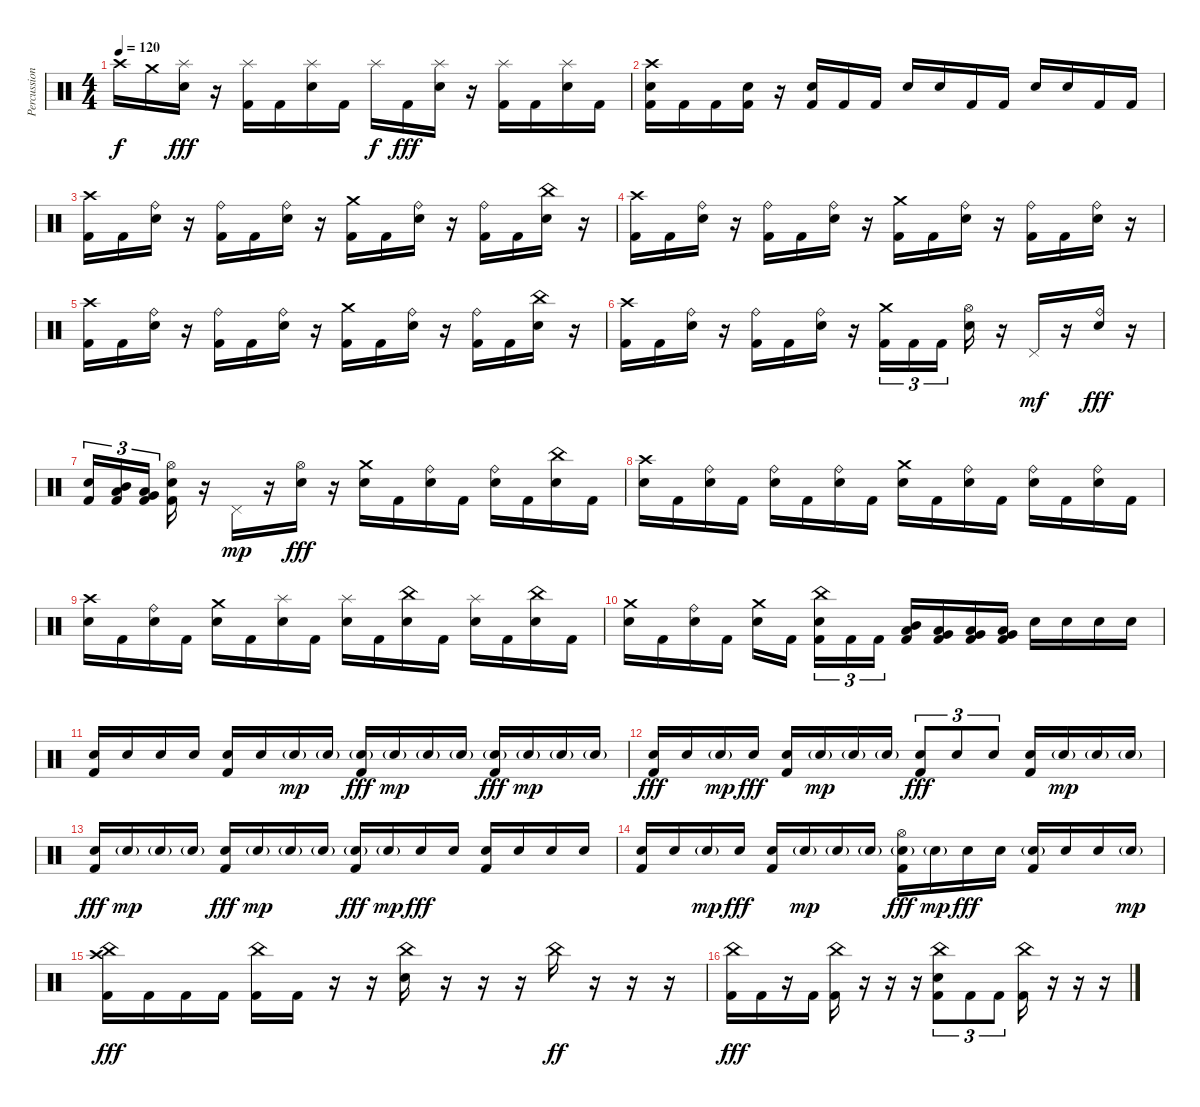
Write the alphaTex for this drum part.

\track ("Percussion" "Percussion") {instrument percussion}
\staff {score}
\articulation defaults
\ts (4 4)
\tempo 120
\clef neutral
\ks c "Crash high (hit)".16{dy f} "Crash medium (hit)".16
("Splash (hit)" "Electric Snare (hit)").16{dy fff} r.16 ("Splash (hit)" "Kick (hit) 2").16 "Kick (hit) 2".16 ("Splash (hit)" "Electric Snare (hit)").16 "Kick (hit) 2".16 "Splash (hit)".16{dy f} "Kick (hit) 2".16{dy fff} ("Splash (hit)" "Electric Snare (hit)").16 r.16 ("Splash (hit)" "Kick (hit) 2").16 "Kick (hit) 2".16 ("Splash (hit)" "Electric Snare (hit)").16 "Kick (hit) 2".16 |
("Crash high (hit)" "Electric Snare (hit)" "Kick (hit) 2").16 "Kick (hit) 2".16 "Kick (hit) 2".16 ("Electric Snare (hit)" "Kick (hit) 2").16 r.16 ("Electric Snare (hit)" "Kick (hit) 2").16 "Kick (hit) 2".16 "Kick (hit) 2".16 "Electric Snare (hit)".16 "Electric Snare (hit)".16 "Kick (hit) 2".16 "Kick (hit) 2".16 "Electric Snare (hit)".16 "Electric Snare (hit)".16 "Kick (hit) 2".16 "Kick (hit) 2".16 |
("Crash high (hit)" "Kick (hit) 2").16 "Kick (hit) 2".16 ("Ride (bell)" "Electric Snare (hit)").16 r.16 ("Ride (bell)" "Kick (hit) 2").16 "Kick (hit) 2".16 ("Ride (bell)" "Electric Snare (hit)").16 r.16 ("Crash medium (hit)" "Kick (hit) 2").16 "Kick (hit) 2".16 ("Ride (bell)" "Electric Snare (hit)").16 r.16 ("Ride (bell)" "Kick (hit) 2").16 "Kick (hit) 2".16 ("China (hit)" "Electric Snare (hit)").16 r.16 |
("Crash high (hit)" "Kick (hit) 2").16 "Kick (hit) 2".16 ("Ride (bell)" "Electric Snare (hit)").16 r.16 ("Ride (bell)" "Kick (hit) 2").16 "Kick (hit) 2".16 ("Ride (bell)" "Electric Snare (hit)").16 r.16 ("Crash medium (hit)" "Kick (hit) 2").16 "Kick (hit) 2".16 ("Ride (bell)" "Electric Snare (hit)").16 r.16 ("Ride (bell)" "Kick (hit) 2").16 "Kick (hit) 2".16 ("Ride (bell)" "Electric Snare (hit)").16 r.16 |
("Crash high (hit)" "Kick (hit) 2").16 "Kick (hit) 2".16 ("Ride (bell)" "Electric Snare (hit)").16 r.16 ("Ride (bell)" "Kick (hit) 2").16 "Kick (hit) 2".16 ("Ride (bell)" "Electric Snare (hit)").16 r.16 ("Crash medium (hit)" "Kick (hit) 2").16 "Kick (hit) 2".16 ("Ride (bell)" "Electric Snare (hit)").16 r.16 ("Ride (bell)" "Kick (hit) 2").16 "Kick (hit) 2".16 ("China (hit)" "Electric Snare (hit)").16 r.16 |
("Crash high (hit)" "Kick (hit) 2").16 "Kick (hit) 2".16 ("Ride (bell)" "Electric Snare (hit)").16 r.16 ("Ride (bell)" "Kick (hit) 2").16 "Kick (hit) 2".16 ("Ride (bell)" "Electric Snare (hit)").16 r.16 ("Crash medium (hit)" "Kick (hit) 2").16{tu (3 2)} "Kick (hit) 2".16{tu (3 2)} "Kick (hit) 2".16{tu (3 2) beam splitsecondary} ("Hi-Hat (open)" "Electric Snare (hit)").16 r.16 "Pedal Hi-Hat (hit)".16{dy mf} r.16 ("Ride (bell)" "Electric Snare (hit)").16{dy fff} r.16 |
("Electric Snare (hit)" "Kick (hit) 2").16{tu (3 2)} ("Low Tom (hit)" "Mid Tom (hit)" "Kick (hit) 2").16{tu (3 2)} ("Very Low Tom (hit)" "Low Tom (hit)" "Kick (hit) 2").16{tu (3 2) beam splitsecondary} ("Hi-Hat (open)" "Electric Snare (hit)" "Kick (hit) 2").16 r.16 "Pedal Hi-Hat (hit)".16{dy mp} r.16 ("Hi-Hat (open)" "Electric Snare (hit)").16{dy fff} r.16 ("Crash medium (hit)" "Electric Snare (hit)").16 "Kick (hit) 2".16 ("Ride (bell)" "Electric Snare (hit)").16 "Kick (hit) 2".16 ("Ride (bell)" "Electric Snare (hit)").16 "Kick (hit) 2".16 ("China (hit)" "Electric Snare (hit)").16 "Kick (hit) 2".16 |
("Crash high (hit)" "Electric Snare (hit)").16 "Kick (hit) 2".16 ("Ride (bell)" "Electric Snare (hit)").16 "Kick (hit) 2".16 ("Ride (bell)" "Electric Snare (hit)").16 "Kick (hit) 2".16 ("Ride (bell)" "Electric Snare (hit)").16 "Kick (hit) 2".16 ("Crash medium (hit)" "Electric Snare (hit)").16 "Kick (hit) 2".16 ("Ride (bell)" "Electric Snare (hit)").16 "Kick (hit) 2".16 ("Ride (bell)" "Electric Snare (hit)").16 "Kick (hit) 2".16 ("Ride (bell)" "Electric Snare (hit)").16 "Kick (hit) 2".16 |
("Crash high (hit)" "Electric Snare (hit)").16 "Kick (hit) 2".16 ("Ride (bell)" "Electric Snare (hit)").16 "Kick (hit) 2".16 ("Crash medium (hit)" "Electric Snare (hit)").16 "Kick (hit) 2".16 ("Splash (hit)" "Electric Snare (hit)").16 "Kick (hit) 2".16 ("Splash (hit)" "Electric Snare (hit)").16 "Kick (hit) 2".16 ("China (hit)" "Electric Snare (hit)").16 "Kick (hit) 2".16 ("Splash (hit)" "Electric Snare (hit)").16 "Kick (hit) 2".16 ("China (hit)" "Electric Snare (hit)").16 "Kick (hit) 2".16 |
("Crash medium (hit)" "Electric Snare (hit)").16 "Kick (hit) 2".16 ("Ride (bell)" "Electric Snare (hit)").16 "Kick (hit) 2".16 ("Crash medium (hit)" "Electric Snare (hit)").16 "Kick (hit) 2".16{beam splitsecondary} ("China (hit)" "Electric Snare (hit)" "Kick (hit) 2").16{tu (3 2)} "Kick (hit) 2".16{tu (3 2)} "Kick (hit) 2".16{tu (3 2)} ("Low Tom (hit)" "Mid Tom (hit)" "Kick (hit) 2").16 ("Low Tom (hit)" "Very Low Tom (hit)" "Kick (hit) 2").16 ("Low Floor Tom (hit)" "Very Low Tom (hit)" "Kick (hit) 2").16 ("Low Floor Tom (hit)" "Very Low Tom (hit)" "Kick (hit) 2").16 "Electric Snare (hit)".16 "Electric Snare (hit)".16 "Electric Snare (hit)".16 "Electric Snare (hit)".16 |
("Electric Snare (hit)" "Kick (hit) 2").16 "Electric Snare (hit)".16 "Electric Snare (hit)".16 "Electric Snare (hit)".16 ("Electric Snare (hit)" "Kick (hit) 2").16 "Electric Snare (hit)".16 "Electric Snare (hit)"{g}.16{dy mp} "Electric Snare (hit)"{g}.16 ("Electric Snare (hit)"{g} "Kick (hit) 2").16{dy fff} "Electric Snare (hit)"{g}.16{dy mp} "Electric Snare (hit)"{g}.16 "Electric Snare (hit)"{g}.16 ("Electric Snare (hit)"{g} "Kick (hit) 2").16{dy fff} "Electric Snare (hit)"{g}.16{dy mp} "Electric Snare (hit)"{g}.16 "Electric Snare (hit)"{g}.16 |
("Electric Snare (hit)" "Kick (hit) 2").16{dy fff} "Electric Snare (hit)".16 "Electric Snare (hit)"{g}.16{dy mp} "Electric Snare (hit)".16{dy fff} ("Electric Snare (hit)" "Kick (hit) 2").16 "Electric Snare (hit)"{g}.16{dy mp} "Electric Snare (hit)"{g}.16 "Electric Snare (hit)"{g}.16 ("Electric Snare (hit)" "Kick (hit) 2").8{tu (3 2) dy fff} "Electric Snare (hit)".8{tu (3 2)} "Electric Snare (hit)".8{tu (3 2)} ("Electric Snare (hit)" "Kick (hit) 2").16 "Electric Snare (hit)"{g}.16{dy mp} "Electric Snare (hit)"{g}.16 "Electric Snare (hit)"{g}.16 |
("Electric Snare (hit)" "Kick (hit) 2").16{dy fff} "Electric Snare (hit)"{g}.16{dy mp} "Electric Snare (hit)"{g}.16 "Electric Snare (hit)"{g}.16 ("Electric Snare (hit)" "Kick (hit) 2").16{dy fff} "Electric Snare (hit)"{g}.16{dy mp} "Electric Snare (hit)"{g}.16 "Electric Snare (hit)"{g}.16 ("Electric Snare (hit)"{g} "Kick (hit) 2").16{dy fff} "Electric Snare (hit)"{g}.16{dy mp} "Electric Snare (hit)".16{dy fff} "Electric Snare (hit)".16 ("Electric Snare (hit)" "Kick (hit) 2").16 "Electric Snare (hit)".16 "Electric Snare (hit)".16 "Electric Snare (hit)".16 |
("Electric Snare (hit)" "Kick (hit) 2").16 "Electric Snare (hit)".16 "Electric Snare (hit)"{g}.16{dy mp} "Electric Snare (hit)".16{dy fff} ("Electric Snare (hit)" "Kick (hit) 2").16 "Electric Snare (hit)"{g}.16{dy mp} "Electric Snare (hit)"{g}.16 "Electric Snare (hit)"{g}.16 ("Hi-Hat (open)" "Electric Snare (hit)"{g} "Kick (hit) 2").16{dy fff} "Electric Snare (hit)"{g}.16{dy mp} "Electric Snare (hit)".16{dy fff} "Electric Snare (hit)".16 ("Electric Snare (hit)"{g} "Kick (hit) 2").16 "Electric Snare (hit)".16 "Electric Snare (hit)".16 "Electric Snare (hit)"{g}.16{dy mp} |
("Crash high (hit)" "China (hit)" "Kick (hit) 2").16{dy fff} "Kick (hit) 2".16 "Kick (hit) 2".16 "Kick (hit) 2".16 ("China (hit)" "Kick (hit) 2").16 "Kick (hit) 2".16 r.16 r.16 ("China (hit)" "Electric Snare (hit)").16 r.16 r.16 r.16 "China (hit)".16{dy ff} r.16 r.16 r.16 |
("China (hit)" "Kick (hit) 2").16{dy fff} "Kick (hit) 2".16 r.16 "Kick (hit) 2".16 ("China (hit)" "Kick (hit) 2").16 r.16 r.16 r.16 ("China (hit)" "Electric Snare (hit)" "Kick (hit) 2").8{tu (3 2)} "Kick (hit) 2".8{tu (3 2)} "Kick (hit) 2".8{tu (3 2)} ("China (hit)" "Kick (hit) 2").16 r.16 r.16 r.16
